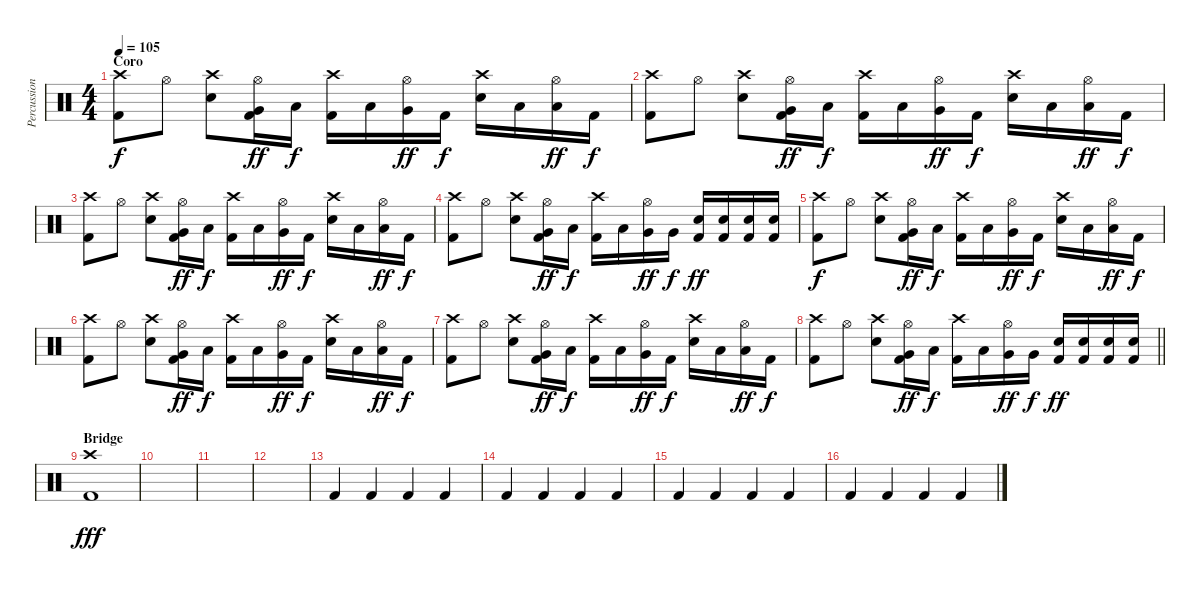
\track ("Percussion" "Percussion") {instrument percussion}
\staff {score}
\articulation defaults
\ts (4 4)
\section ("" "Coro")
\tempo 105
\clef neutral
\ks c
("Crash high (hit)" "Kick (hit) 2").8{dy f} "Hi-Hat (open)".8 ("Crash high (hit)" "Electric Snare (hit)").8 ("Very Low Tom (hit)" "Hi-Hat (open)" "Kick (hit) 2").16{dy ff} "Low Tom (hit)".16{dy f} ("Crash high (hit)" "Kick (hit) 2").16 "Low Tom (hit)".16 ("Very Low Tom (hit)" "Hi-Hat (open)").16{dy ff} "Kick (hit) 2".16{dy f} ("Crash high (hit)" "Electric Snare (hit)").16 "Low Tom (hit)".16 ("Low Tom (hit)" "Hi-Hat (open)").16{dy ff} "Kick (hit) 2".16{dy f} |
("Crash high (hit)" "Kick (hit) 2").8 "Hi-Hat (open)".8 ("Crash high (hit)" "Electric Snare (hit)").8 ("Very Low Tom (hit)" "Hi-Hat (open)" "Kick (hit) 2").16{dy ff} "Low Tom (hit)".16{dy f} ("Crash high (hit)" "Kick (hit) 2").16 "Low Tom (hit)".16 ("Very Low Tom (hit)" "Hi-Hat (open)").16{dy ff} "Kick (hit) 2".16{dy f} ("Crash high (hit)" "Electric Snare (hit)").16 "Low Tom (hit)".16 ("Low Tom (hit)" "Hi-Hat (open)").16{dy ff} "Kick (hit) 2".16{dy f} |
("Crash high (hit)" "Kick (hit) 2").8 "Hi-Hat (open)".8 ("Crash high (hit)" "Electric Snare (hit)").8 ("Very Low Tom (hit)" "Hi-Hat (open)" "Kick (hit) 2").16{dy ff} "Low Tom (hit)".16{dy f} ("Crash high (hit)" "Kick (hit) 2").16 "Low Tom (hit)".16 ("Very Low Tom (hit)" "Hi-Hat (open)").16{dy ff} "Kick (hit) 2".16{dy f} ("Crash high (hit)" "Electric Snare (hit)").16 "Low Tom (hit)".16 ("Low Tom (hit)" "Hi-Hat (open)").16{dy ff} "Kick (hit) 2".16{dy f} |
("Crash high (hit)" "Kick (hit) 2").8 "Hi-Hat (open)".8 ("Crash high (hit)" "Electric Snare (hit)").8 ("Very Low Tom (hit)" "Hi-Hat (open)" "Kick (hit) 2").16{dy ff} "Low Tom (hit)".16{dy f} ("Crash high (hit)" "Kick (hit) 2").16 "Low Tom (hit)".16 ("Very Low Tom (hit)" "Hi-Hat (open)").16{dy ff} "Very Low Tom (hit)".16{dy f} ("Electric Snare (hit)" "Kick (hit) 2").16{dy ff} ("Electric Snare (hit)" "Kick (hit) 2").16 ("Electric Snare (hit)" "Kick (hit) 2").16 ("Electric Snare (hit)" "Kick (hit) 2").16 |
("Crash high (hit)" "Kick (hit) 2").8{dy f} "Hi-Hat (open)".8 ("Crash high (hit)" "Electric Snare (hit)").8 ("Very Low Tom (hit)" "Hi-Hat (open)" "Kick (hit) 2").16{dy ff} "Low Tom (hit)".16{dy f} ("Crash high (hit)" "Kick (hit) 2").16 "Low Tom (hit)".16 ("Very Low Tom (hit)" "Hi-Hat (open)").16{dy ff} "Kick (hit) 2".16{dy f} ("Crash high (hit)" "Electric Snare (hit)").16 "Low Tom (hit)".16 ("Low Tom (hit)" "Hi-Hat (open)").16{dy ff} "Kick (hit) 2".16{dy f} |
("Crash high (hit)" "Kick (hit) 2").8 "Hi-Hat (open)".8 ("Crash high (hit)" "Electric Snare (hit)").8 ("Very Low Tom (hit)" "Hi-Hat (open)" "Kick (hit) 2").16{dy ff} "Low Tom (hit)".16{dy f} ("Crash high (hit)" "Kick (hit) 2").16 "Low Tom (hit)".16 ("Very Low Tom (hit)" "Hi-Hat (open)").16{dy ff} "Kick (hit) 2".16{dy f} ("Crash high (hit)" "Electric Snare (hit)").16 "Low Tom (hit)".16 ("Low Tom (hit)" "Hi-Hat (open)").16{dy ff} "Kick (hit) 2".16{dy f} |
("Crash high (hit)" "Kick (hit) 2").8 "Hi-Hat (open)".8 ("Crash high (hit)" "Electric Snare (hit)").8 ("Very Low Tom (hit)" "Hi-Hat (open)" "Kick (hit) 2").16{dy ff} "Low Tom (hit)".16{dy f} ("Crash high (hit)" "Kick (hit) 2").16 "Low Tom (hit)".16 ("Very Low Tom (hit)" "Hi-Hat (open)").16{dy ff} "Kick (hit) 2".16{dy f} ("Crash high (hit)" "Electric Snare (hit)").16 "Low Tom (hit)".16 ("Low Tom (hit)" "Hi-Hat (open)").16{dy ff} "Kick (hit) 2".16{dy f} |
\barLineRight lightlight
("Crash high (hit)" "Kick (hit) 2").8 "Hi-Hat (open)".8 ("Crash high (hit)" "Electric Snare (hit)").8 ("Very Low Tom (hit)" "Hi-Hat (open)" "Kick (hit) 2").16{dy ff} "Low Tom (hit)".16{dy f} ("Crash high (hit)" "Kick (hit) 2").16 "Low Tom (hit)".16 ("Very Low Tom (hit)" "Hi-Hat (open)").16{dy ff} "Very Low Tom (hit)".16{dy f} ("Electric Snare (hit)" "Kick (hit) 2").16{dy ff} ("Electric Snare (hit)" "Kick (hit) 2").16 ("Electric Snare (hit)" "Kick (hit) 2").16 ("Electric Snare (hit)" "Kick (hit) 2").16 |
\section ("" "Bridge")
("Crash high (hit)" "Kick (hit) 2").1{dy fff} |
|
|
|
"Kick (hit) 2".4 "Kick (hit) 2".4 "Kick (hit) 2".4 "Kick (hit) 2".4 |
"Kick (hit) 2".4 "Kick (hit) 2".4 "Kick (hit) 2".4 "Kick (hit) 2".4 |
"Kick (hit) 2".4 "Kick (hit) 2".4 "Kick (hit) 2".4 "Kick (hit) 2".4 |
"Kick (hit) 2".4 "Kick (hit) 2".4 "Kick (hit) 2".4 "Kick (hit) 2".4
